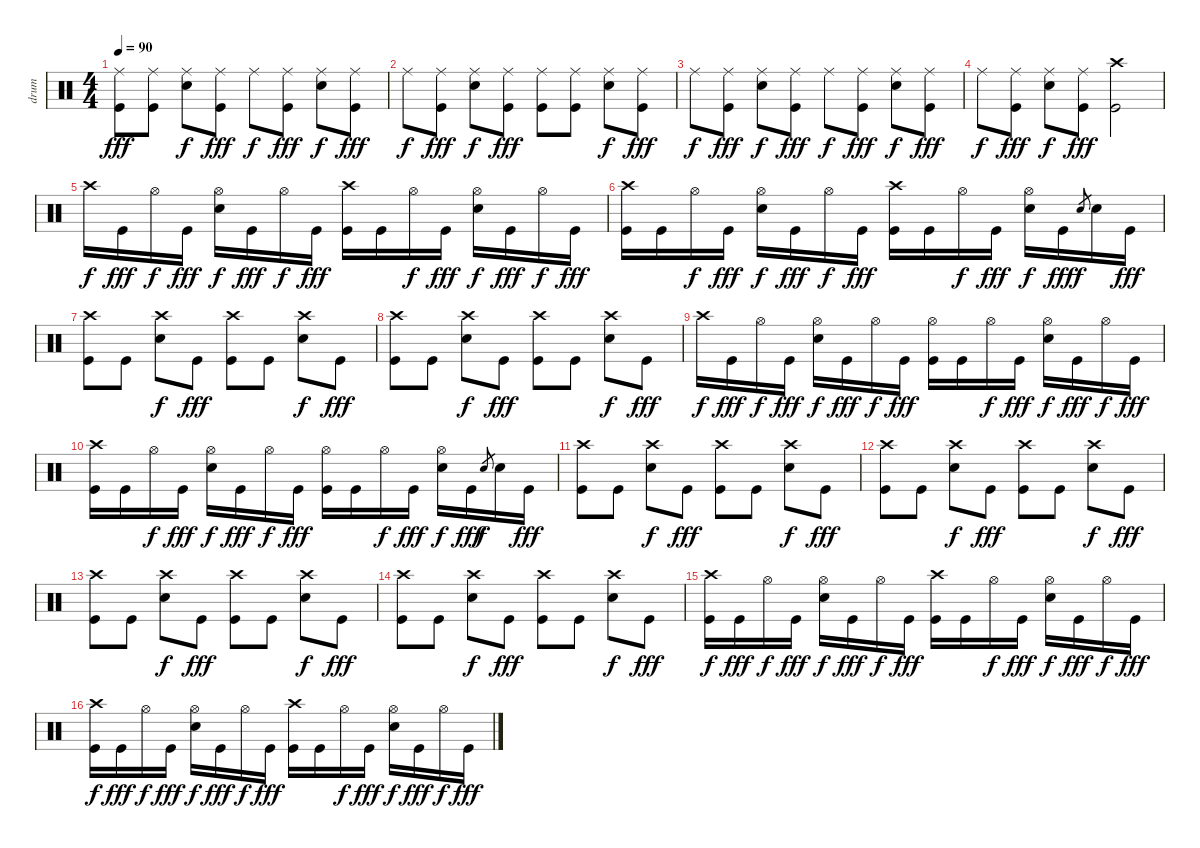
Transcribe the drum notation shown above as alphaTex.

\track ("drum" "drum") {instrument percussion}
\staff {score}
\articulation defaults
\ts (4 4)
\tempo 90
\clef neutral
\ks c
("Ride (middle)" "Kick (hit)").8{dy fff} ("Ride (middle)" "Kick (hit)").8 ("Ride (middle)" "Electric Snare (hit)").8{dy f} ("Ride (middle)" "Kick (hit)").8{dy fff} "Ride (middle)".8{dy f} ("Ride (middle)" "Kick (hit)").8{dy fff} ("Ride (middle)" "Electric Snare (hit)").8{dy f} ("Ride (middle)" "Kick (hit)").8{dy fff} |
"Ride (middle)".8{dy f} ("Ride (middle)" "Kick (hit)").8{dy fff} ("Ride (middle)" "Electric Snare (hit)").8{dy f} ("Ride (middle)" "Kick (hit)").8{dy fff} ("Ride (middle)" "Kick (hit)").8 ("Ride (middle)" "Kick (hit)").8 ("Ride (middle)" "Electric Snare (hit)").8{dy f} ("Ride (middle)" "Kick (hit)").8{dy fff} |
"Ride (middle)".8{dy f} ("Ride (middle)" "Kick (hit)").8{dy fff} ("Ride (middle)" "Electric Snare (hit)").8{dy f} ("Ride (middle)" "Kick (hit)").8{dy fff} "Ride (middle)".8{dy f} ("Ride (middle)" "Kick (hit)").8{dy fff} ("Ride (middle)" "Electric Snare (hit)").8{dy f} ("Ride (middle)" "Kick (hit)").8{dy fff} |
"Ride (middle)".8{dy f} ("Ride (middle)" "Kick (hit)").8{dy fff} ("Ride (middle)" "Electric Snare (hit)").8{dy f} ("Ride (middle)" "Kick (hit)").8{dy fff} ("Crash high (hit)" "Kick (hit)").2 |
"Crash high (hit)".16{dy f} "Kick (hit)".16{dy fff} "Hi-Hat (open)".16{dy f} "Kick (hit)".16{dy fff} ("Hi-Hat (open)" "Electric Snare (hit)").16{dy f} "Kick (hit)".16{dy fff} "Hi-Hat (open)".16{dy f} "Kick (hit)".16{dy fff} ("Crash high (hit)" "Kick (hit)").16 "Kick (hit)".16 "Hi-Hat (open)".16{dy f} "Kick (hit)".16{dy fff} ("Hi-Hat (open)" "Electric Snare (hit)").16{dy f} "Kick (hit)".16{dy fff} "Hi-Hat (open)".16{dy f} "Kick (hit)".16{dy fff} |
("Crash high (hit)" "Kick (hit)").16 "Kick (hit)".16 "Hi-Hat (open)".16{dy f} "Kick (hit)".16{dy fff} ("Hi-Hat (open)" "Electric Snare (hit)").16{dy f} "Kick (hit)".16{dy fff} "Hi-Hat (open)".16{dy f} "Kick (hit)".16{dy fff} ("Crash high (hit)" "Kick (hit)").16 "Kick (hit)".16 "Hi-Hat (open)".16{dy f} "Kick (hit)".16{dy fff} ("Hi-Hat (open)" "Electric Snare (hit)").16{dy f} "Kick (hit)".16{dy fff} "Electric Snare (hit)".8{gr dy f} "Electric Snare (hit)".16 "Kick (hit)".16{dy fff} |
("Crash high (hit)" "Kick (hit)").8 "Kick (hit)".8 ("Crash high (hit)" "Electric Snare (hit)").8{dy f} "Kick (hit)".8{dy fff} ("Crash high (hit)" "Kick (hit)").8 "Kick (hit)".8 ("Crash high (hit)" "Electric Snare (hit)").8{dy f} "Kick (hit)".8{dy fff} |
("Crash high (hit)" "Kick (hit)").8 "Kick (hit)".8 ("Crash high (hit)" "Electric Snare (hit)").8{dy f} "Kick (hit)".8{dy fff} ("Crash high (hit)" "Kick (hit)").8 "Kick (hit)".8 ("Crash high (hit)" "Electric Snare (hit)").8{dy f} "Kick (hit)".8{dy fff} |
"Crash high (hit)".16{dy f} "Kick (hit)".16{dy fff} "Hi-Hat (open)".16{dy f} "Kick (hit)".16{dy fff} ("Hi-Hat (open)" "Electric Snare (hit)").16{dy f} "Kick (hit)".16{dy fff} "Hi-Hat (open)".16{dy f} "Kick (hit)".16{dy fff} ("Hi-Hat (open)" "Kick (hit)").16 "Kick (hit)".16 "Hi-Hat (open)".16{dy f} "Kick (hit)".16{dy fff} ("Hi-Hat (open)" "Electric Snare (hit)").16{dy f} "Kick (hit)".16{dy fff} "Hi-Hat (open)".16{dy f} "Kick (hit)".16{dy fff} |
("Crash high (hit)" "Kick (hit)").16 "Kick (hit)".16 "Hi-Hat (open)".16{dy f} "Kick (hit)".16{dy fff} ("Hi-Hat (open)" "Electric Snare (hit)").16{dy f} "Kick (hit)".16{dy fff} "Hi-Hat (open)".16{dy f} "Kick (hit)".16{dy fff} ("Hi-Hat (open)" "Kick (hit)").16 "Kick (hit)".16 "Hi-Hat (open)".16{dy f} "Kick (hit)".16{dy fff} ("Hi-Hat (open)" "Electric Snare (hit)").16{dy f} "Kick (hit)".16{dy fff} "Electric Snare (hit)".8{gr dy f} "Electric Snare (hit)".16 "Kick (hit)".16{dy fff} |
("Crash high (hit)" "Kick (hit)").8 "Kick (hit)".8 ("Crash high (hit)" "Electric Snare (hit)").8{dy f} "Kick (hit)".8{dy fff} ("Crash high (hit)" "Kick (hit)").8 "Kick (hit)".8 ("Crash high (hit)" "Electric Snare (hit)").8{dy f} "Kick (hit)".8{dy fff} |
("Crash high (hit)" "Kick (hit)").8 "Kick (hit)".8 ("Crash high (hit)" "Electric Snare (hit)").8{dy f} "Kick (hit)".8{dy fff} ("Crash high (hit)" "Kick (hit)").8 "Kick (hit)".8 ("Crash high (hit)" "Electric Snare (hit)").8{dy f} "Kick (hit)".8{dy fff} |
("Crash high (hit)" "Kick (hit)").8 "Kick (hit)".8 ("Crash high (hit)" "Electric Snare (hit)").8{dy f} "Kick (hit)".8{dy fff} ("Crash high (hit)" "Kick (hit)").8 "Kick (hit)".8 ("Crash high (hit)" "Electric Snare (hit)").8{dy f} "Kick (hit)".8{dy fff} |
("Crash high (hit)" "Kick (hit)").8 "Kick (hit)".8 ("Crash high (hit)" "Electric Snare (hit)").8{dy f} "Kick (hit)".8{dy fff} ("Crash high (hit)" "Kick (hit)").8 "Kick (hit)".8 ("Crash high (hit)" "Electric Snare (hit)").8{dy f} "Kick (hit)".8{dy fff} |
("Crash high (hit)" "Kick (hit)").16{dy f} "Kick (hit)".16{dy fff} "Hi-Hat (open)".16{dy f} "Kick (hit)".16{dy fff} ("Hi-Hat (open)" "Electric Snare (hit)").16{dy f} "Kick (hit)".16{dy fff} "Hi-Hat (open)".16{dy f} "Kick (hit)".16{dy fff} ("Crash high (hit)" "Kick (hit)").16 "Kick (hit)".16 "Hi-Hat (open)".16{dy f} "Kick (hit)".16{dy fff} ("Hi-Hat (open)" "Electric Snare (hit)").16{dy f} "Kick (hit)".16{dy fff} "Hi-Hat (open)".16{dy f} "Kick (hit)".16{dy fff} |
("Crash high (hit)" "Kick (hit)").16{dy f} "Kick (hit)".16{dy fff} "Hi-Hat (open)".16{dy f} "Kick (hit)".16{dy fff} ("Hi-Hat (open)" "Electric Snare (hit)").16{dy f} "Kick (hit)".16{dy fff} "Hi-Hat (open)".16{dy f} "Kick (hit)".16{dy fff} ("Crash high (hit)" "Kick (hit)").16 "Kick (hit)".16 "Hi-Hat (open)".16{dy f} "Kick (hit)".16{dy fff} ("Hi-Hat (open)" "Electric Snare (hit)").16{dy f} "Kick (hit)".16{dy fff} "Hi-Hat (open)".16{dy f} "Kick (hit)".16{dy fff}
